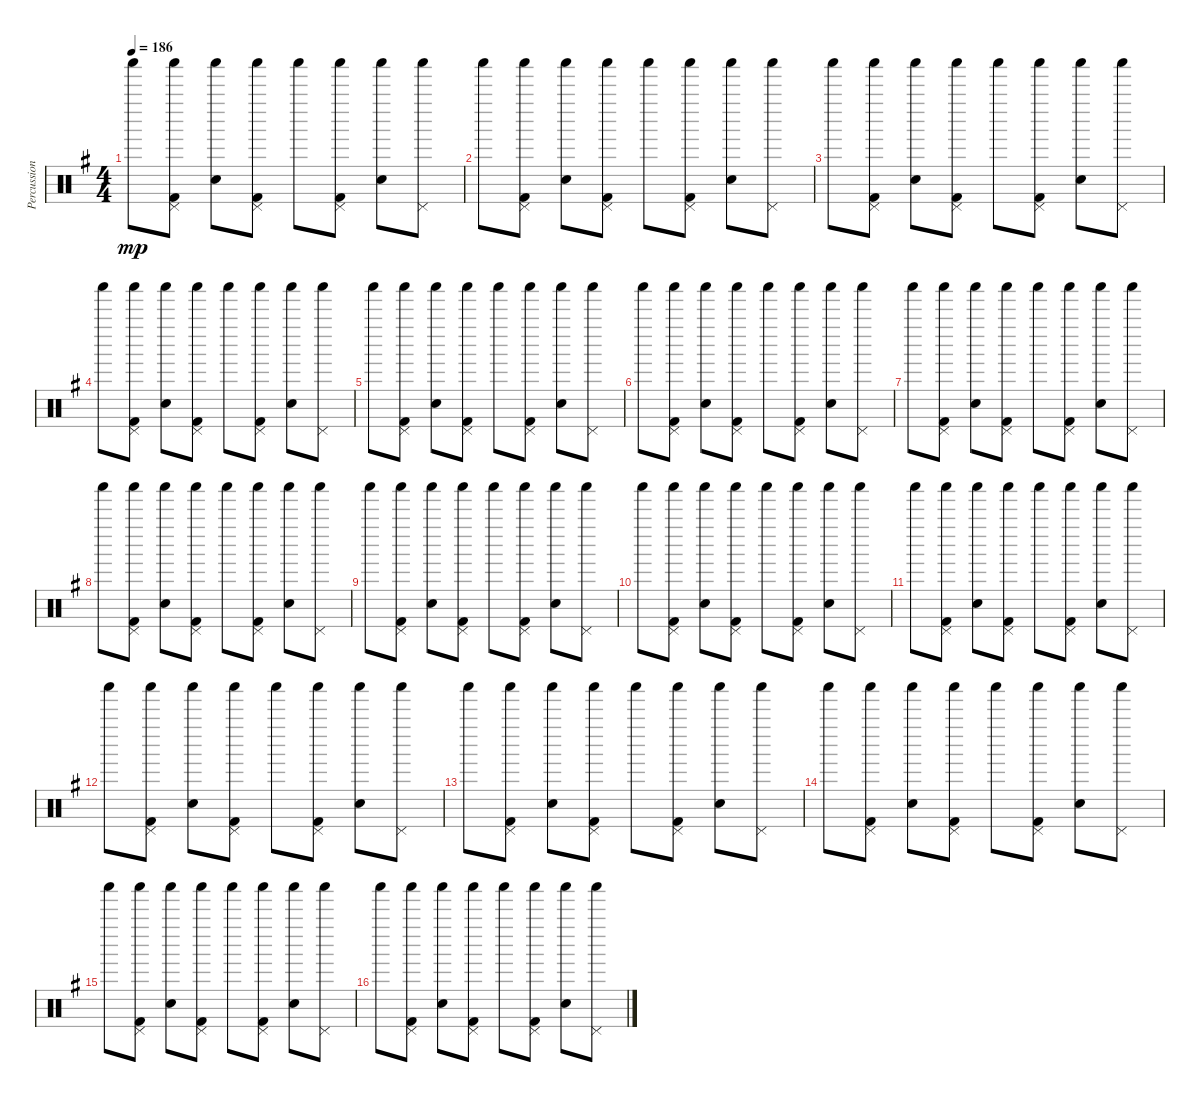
\track ("Percussion" "Percussion") {instrument percussion}
\staff {score}
\articulation defaults
\ts (4 4)
\tempo 186
\clef neutral
\ks g "Shaker (hit)".8{dy mp}
("Shaker (hit)" "Pedal Hi-Hat (hit)" "Kick (hit) 2").8 ("Shaker (hit)" "Electric Snare (hit)").8 ("Shaker (hit)" "Pedal Hi-Hat (hit)" "Kick (hit) 2").8 "Shaker (hit)".8 ("Shaker (hit)" "Pedal Hi-Hat (hit)" "Kick (hit) 2").8 ("Shaker (hit)" "Electric Snare (hit)").8 ("Shaker (hit)" "Pedal Hi-Hat (hit)").8 |
"Shaker (hit)".8 ("Shaker (hit)" "Pedal Hi-Hat (hit)" "Kick (hit) 2").8 ("Shaker (hit)" "Electric Snare (hit)").8 ("Shaker (hit)" "Pedal Hi-Hat (hit)" "Kick (hit) 2").8 "Shaker (hit)".8 ("Shaker (hit)" "Pedal Hi-Hat (hit)" "Kick (hit) 2").8 ("Shaker (hit)" "Electric Snare (hit)").8 ("Shaker (hit)" "Pedal Hi-Hat (hit)").8 |
"Shaker (hit)".8 ("Shaker (hit)" "Pedal Hi-Hat (hit)" "Kick (hit) 2").8 ("Shaker (hit)" "Electric Snare (hit)").8 ("Shaker (hit)" "Pedal Hi-Hat (hit)" "Kick (hit) 2").8 "Shaker (hit)".8 ("Shaker (hit)" "Pedal Hi-Hat (hit)" "Kick (hit) 2").8 ("Shaker (hit)" "Electric Snare (hit)").8 ("Shaker (hit)" "Pedal Hi-Hat (hit)").8 |
"Shaker (hit)".8 ("Shaker (hit)" "Pedal Hi-Hat (hit)" "Kick (hit) 2").8 ("Shaker (hit)" "Electric Snare (hit)").8 ("Shaker (hit)" "Pedal Hi-Hat (hit)" "Kick (hit) 2").8 "Shaker (hit)".8 ("Shaker (hit)" "Pedal Hi-Hat (hit)" "Kick (hit) 2").8 ("Shaker (hit)" "Electric Snare (hit)").8 ("Shaker (hit)" "Pedal Hi-Hat (hit)").8 |
"Shaker (hit)".8 ("Shaker (hit)" "Pedal Hi-Hat (hit)" "Kick (hit) 2").8 ("Shaker (hit)" "Electric Snare (hit)").8 ("Shaker (hit)" "Pedal Hi-Hat (hit)" "Kick (hit) 2").8 "Shaker (hit)".8 ("Shaker (hit)" "Pedal Hi-Hat (hit)" "Kick (hit) 2").8 ("Shaker (hit)" "Electric Snare (hit)").8 ("Shaker (hit)" "Pedal Hi-Hat (hit)").8 |
"Shaker (hit)".8 ("Shaker (hit)" "Pedal Hi-Hat (hit)" "Kick (hit) 2").8 ("Shaker (hit)" "Electric Snare (hit)").8 ("Shaker (hit)" "Pedal Hi-Hat (hit)" "Kick (hit) 2").8 "Shaker (hit)".8 ("Shaker (hit)" "Pedal Hi-Hat (hit)" "Kick (hit) 2").8 ("Shaker (hit)" "Electric Snare (hit)").8 ("Shaker (hit)" "Pedal Hi-Hat (hit)").8 |
"Shaker (hit)".8 ("Shaker (hit)" "Pedal Hi-Hat (hit)" "Kick (hit) 2").8 ("Shaker (hit)" "Electric Snare (hit)").8 ("Shaker (hit)" "Pedal Hi-Hat (hit)" "Kick (hit) 2").8 "Shaker (hit)".8 ("Shaker (hit)" "Pedal Hi-Hat (hit)" "Kick (hit) 2").8 ("Shaker (hit)" "Electric Snare (hit)").8 ("Shaker (hit)" "Pedal Hi-Hat (hit)").8 |
"Shaker (hit)".8 ("Shaker (hit)" "Pedal Hi-Hat (hit)" "Kick (hit) 2").8 ("Shaker (hit)" "Electric Snare (hit)").8 ("Shaker (hit)" "Pedal Hi-Hat (hit)" "Kick (hit) 2").8 "Shaker (hit)".8 ("Shaker (hit)" "Pedal Hi-Hat (hit)" "Kick (hit) 2").8 ("Shaker (hit)" "Electric Snare (hit)").8 ("Shaker (hit)" "Pedal Hi-Hat (hit)").8 |
"Shaker (hit)".8 ("Shaker (hit)" "Pedal Hi-Hat (hit)" "Kick (hit) 2").8 ("Shaker (hit)" "Electric Snare (hit)").8 ("Shaker (hit)" "Pedal Hi-Hat (hit)" "Kick (hit) 2").8 "Shaker (hit)".8 ("Shaker (hit)" "Pedal Hi-Hat (hit)" "Kick (hit) 2").8 ("Shaker (hit)" "Electric Snare (hit)").8 ("Shaker (hit)" "Pedal Hi-Hat (hit)").8 |
"Shaker (hit)".8 ("Shaker (hit)" "Pedal Hi-Hat (hit)" "Kick (hit) 2").8 ("Shaker (hit)" "Electric Snare (hit)").8 ("Shaker (hit)" "Pedal Hi-Hat (hit)" "Kick (hit) 2").8 "Shaker (hit)".8 ("Shaker (hit)" "Pedal Hi-Hat (hit)" "Kick (hit) 2").8 ("Shaker (hit)" "Electric Snare (hit)").8 ("Shaker (hit)" "Pedal Hi-Hat (hit)").8 |
"Shaker (hit)".8 ("Shaker (hit)" "Pedal Hi-Hat (hit)" "Kick (hit) 2").8 ("Shaker (hit)" "Electric Snare (hit)").8 ("Shaker (hit)" "Pedal Hi-Hat (hit)" "Kick (hit) 2").8 "Shaker (hit)".8 ("Shaker (hit)" "Pedal Hi-Hat (hit)" "Kick (hit) 2").8 ("Shaker (hit)" "Electric Snare (hit)").8 ("Shaker (hit)" "Pedal Hi-Hat (hit)").8 |
"Shaker (hit)".8 ("Shaker (hit)" "Pedal Hi-Hat (hit)" "Kick (hit) 2").8 ("Shaker (hit)" "Electric Snare (hit)").8 ("Shaker (hit)" "Pedal Hi-Hat (hit)" "Kick (hit) 2").8 "Shaker (hit)".8 ("Shaker (hit)" "Pedal Hi-Hat (hit)" "Kick (hit) 2").8 ("Shaker (hit)" "Electric Snare (hit)").8 ("Shaker (hit)" "Pedal Hi-Hat (hit)").8 |
"Shaker (hit)".8 ("Shaker (hit)" "Pedal Hi-Hat (hit)" "Kick (hit) 2").8 ("Shaker (hit)" "Electric Snare (hit)").8 ("Shaker (hit)" "Pedal Hi-Hat (hit)" "Kick (hit) 2").8 "Shaker (hit)".8 ("Shaker (hit)" "Pedal Hi-Hat (hit)" "Kick (hit) 2").8 ("Shaker (hit)" "Electric Snare (hit)").8 ("Shaker (hit)" "Pedal Hi-Hat (hit)").8 |
"Shaker (hit)".8 ("Shaker (hit)" "Pedal Hi-Hat (hit)" "Kick (hit) 2").8 ("Shaker (hit)" "Electric Snare (hit)").8 ("Shaker (hit)" "Pedal Hi-Hat (hit)" "Kick (hit) 2").8 "Shaker (hit)".8 ("Shaker (hit)" "Pedal Hi-Hat (hit)" "Kick (hit) 2").8 ("Shaker (hit)" "Electric Snare (hit)").8 ("Shaker (hit)" "Pedal Hi-Hat (hit)").8 |
"Shaker (hit)".8 ("Shaker (hit)" "Pedal Hi-Hat (hit)" "Kick (hit) 2").8 ("Shaker (hit)" "Electric Snare (hit)").8 ("Shaker (hit)" "Pedal Hi-Hat (hit)" "Kick (hit) 2").8 "Shaker (hit)".8 ("Shaker (hit)" "Pedal Hi-Hat (hit)" "Kick (hit) 2").8 ("Shaker (hit)" "Electric Snare (hit)").8 ("Shaker (hit)" "Pedal Hi-Hat (hit)").8 |
"Shaker (hit)".8 ("Shaker (hit)" "Pedal Hi-Hat (hit)" "Kick (hit) 2").8 ("Shaker (hit)" "Electric Snare (hit)").8 ("Shaker (hit)" "Pedal Hi-Hat (hit)" "Kick (hit) 2").8 "Shaker (hit)".8 ("Shaker (hit)" "Pedal Hi-Hat (hit)" "Kick (hit) 2").8 ("Shaker (hit)" "Electric Snare (hit)").8 ("Shaker (hit)" "Pedal Hi-Hat (hit)").8
